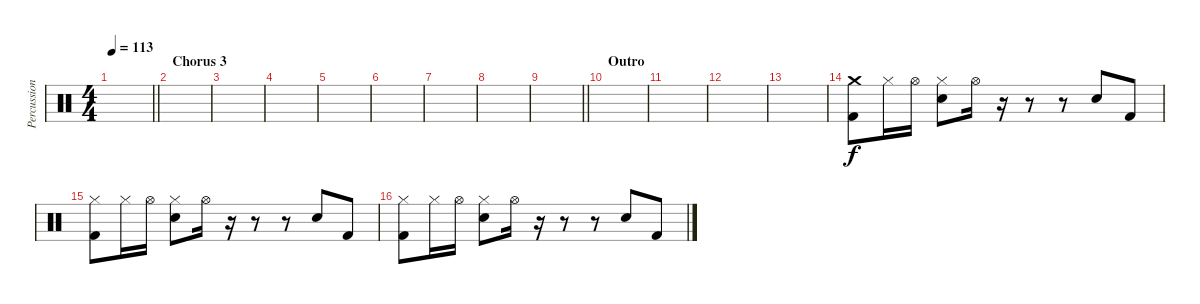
\track ("Percussion Overdub" "Percussion") {instrument percussion}
\staff {score}
\articulation defaults
\ts (4 4)
\tempo 113
\clef neutral
\barLineRight lightlight
\ks c
|
\section ("" "Chorus 3")
|
|
|
|
|
|
|
\barLineRight lightlight
|
\section ("" "Outro")
|
|
|
|
("Crash medium (hit)" "Kick (hit) 2").8 "Hi-Hat (closed)".16 "Hi-Hat (open)".16 ("Hi-Hat (closed)" "Electric Snare (hit)").8 "Hi-Hat (open)".16 r.16 r.8 r.8 "Electric Snare (hit)".8 "Kick (hit) 2".8 |
("Hi-Hat (closed)" "Kick (hit) 2").8 "Hi-Hat (closed)".16 "Hi-Hat (open)".16 ("Hi-Hat (closed)" "Electric Snare (hit)").8 "Hi-Hat (open)".16 r.16 r.8 r.8 "Electric Snare (hit)".8 "Kick (hit) 2".8 |
("Hi-Hat (closed)" "Kick (hit) 2").8 "Hi-Hat (closed)".16 "Hi-Hat (open)".16 ("Hi-Hat (closed)" "Electric Snare (hit)").8 "Hi-Hat (open)".16 r.16 r.8 r.8 "Electric Snare (hit)".8 "Kick (hit) 2".8
